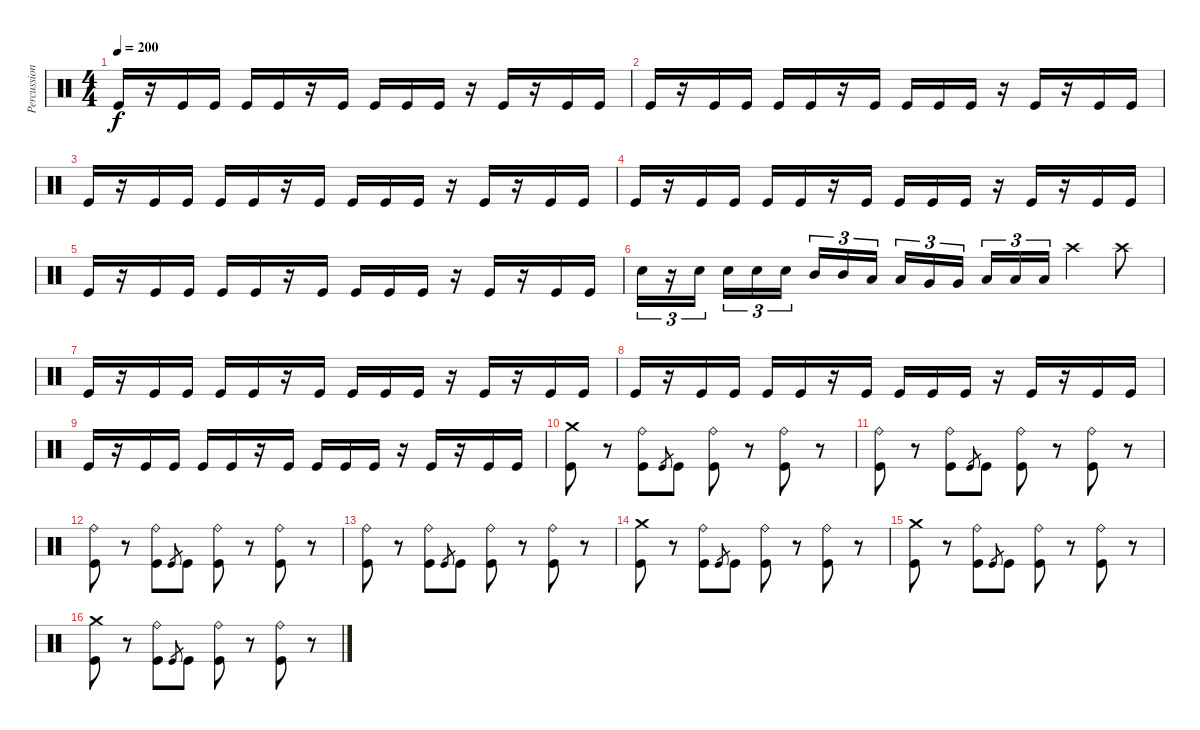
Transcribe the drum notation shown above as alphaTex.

\track ("Percussion" "Percussion") {instrument percussion}
\staff {score}
\articulation defaults
\ts (4 4)
\tempo 200
\clef neutral
\ks c "Kick (hit)".16{dy f}
r.16 "Kick (hit)".16 "Kick (hit)".16 "Kick (hit)".16 "Kick (hit)".16 r.16 "Kick (hit)".16 "Kick (hit)".16 "Kick (hit)".16 "Kick (hit)".16 r.16 "Kick (hit)".16 r.16 "Kick (hit)".16 "Kick (hit)".16 |
"Kick (hit)".16 r.16 "Kick (hit)".16 "Kick (hit)".16 "Kick (hit)".16 "Kick (hit)".16 r.16 "Kick (hit)".16 "Kick (hit)".16 "Kick (hit)".16 "Kick (hit)".16 r.16 "Kick (hit)".16 r.16 "Kick (hit)".16 "Kick (hit)".16 |
"Kick (hit)".16 r.16 "Kick (hit)".16 "Kick (hit)".16 "Kick (hit)".16 "Kick (hit)".16 r.16 "Kick (hit)".16 "Kick (hit)".16 "Kick (hit)".16 "Kick (hit)".16 r.16 "Kick (hit)".16 r.16 "Kick (hit)".16 "Kick (hit)".16 |
"Kick (hit)".16 r.16 "Kick (hit)".16 "Kick (hit)".16 "Kick (hit)".16 "Kick (hit)".16 r.16 "Kick (hit)".16 "Kick (hit)".16 "Kick (hit)".16 "Kick (hit)".16 r.16 "Kick (hit)".16 r.16 "Kick (hit)".16 "Kick (hit)".16 |
"Kick (hit)".16 r.16 "Kick (hit)".16 "Kick (hit)".16 "Kick (hit)".16 "Kick (hit)".16 r.16 "Kick (hit)".16 "Kick (hit)".16 "Kick (hit)".16 "Kick (hit)".16 r.16 "Kick (hit)".16 r.16 "Kick (hit)".16 "Kick (hit)".16 |
"Snare (hit) 2".16{tu (3 2)} r.16{tu (3 2)} "Snare (hit) 2".16{tu (3 2)} "Snare (hit) 2".16{tu (3 2)} "Snare (hit) 2".16{tu (3 2)} "Snare (hit) 2".16{tu (3 2)} "Mid Tom (hit)".16{tu (3 2)} "Mid Tom (hit)".16{tu (3 2)} "Low Tom (hit)".16{tu (3 2)} "Low Tom (hit)".16{tu (3 2)} "Very Low Tom (hit)".16{tu (3 2)} "Very Low Tom (hit)".16{tu (3 2)} "Low Floor Tom (hit)".16{tu (3 2)} "Low Floor Tom (hit)".16{tu (3 2)} "Low Floor Tom (hit)".16{tu (3 2)} "Crash high (hit)".4 "Crash high (hit)".8 |
"Kick (hit)".16 r.16 "Kick (hit)".16 "Kick (hit)".16 "Kick (hit)".16 "Kick (hit)".16 r.16 "Kick (hit)".16 "Kick (hit)".16 "Kick (hit)".16 "Kick (hit)".16 r.16 "Kick (hit)".16 r.16 "Kick (hit)".16 "Kick (hit)".16 |
"Kick (hit)".16 r.16 "Kick (hit)".16 "Kick (hit)".16 "Kick (hit)".16 "Kick (hit)".16 r.16 "Kick (hit)".16 "Kick (hit)".16 "Kick (hit)".16 "Kick (hit)".16 r.16 "Kick (hit)".16 r.16 "Kick (hit)".16 "Kick (hit)".16 |
"Kick (hit)".16 r.16 "Kick (hit)".16 "Kick (hit)".16 "Kick (hit)".16 "Kick (hit)".16 r.16 "Kick (hit)".16 "Kick (hit)".16 "Kick (hit)".16 "Kick (hit)".16 r.16 "Kick (hit)".16 r.16 "Kick (hit)".16 "Kick (hit)".16 |
("Crash medium (hit)" "Kick (hit)").8 r.8 ("Ride (bell)" "Kick (hit)").8 "Kick (hit)".8{gr} "Kick (hit)".8 ("Ride (bell)" "Kick (hit)").8 r.8 ("Ride (bell)" "Kick (hit)").8 r.8 |
("Ride (bell)" "Kick (hit)").8 r.8 ("Ride (bell)" "Kick (hit)").8 "Kick (hit)".8{gr} "Kick (hit)".8 ("Ride (bell)" "Kick (hit)").8 r.8 ("Ride (bell)" "Kick (hit)").8 r.8 |
("Ride (bell)" "Kick (hit)").8 r.8 ("Ride (bell)" "Kick (hit)").8 "Kick (hit)".8{gr} "Kick (hit)".8 ("Ride (bell)" "Kick (hit)").8 r.8 ("Ride (bell)" "Kick (hit)").8 r.8 |
("Ride (bell)" "Kick (hit)").8 r.8 ("Ride (bell)" "Kick (hit)").8 "Kick (hit)".8{gr} "Kick (hit)".8 ("Ride (bell)" "Kick (hit)").8 r.8 ("Ride (bell)" "Kick (hit)").8 r.8 |
("Crash medium (hit)" "Kick (hit)").8 r.8 ("Ride (bell)" "Kick (hit)").8 "Kick (hit)".8{gr} "Kick (hit)".8 ("Ride (bell)" "Kick (hit)").8 r.8 ("Ride (bell)" "Kick (hit)").8 r.8 |
("Crash medium (hit)" "Kick (hit)").8 r.8 ("Ride (bell)" "Kick (hit)").8 "Kick (hit)".8{gr} "Kick (hit)".8 ("Ride (bell)" "Kick (hit)").8 r.8 ("Ride (bell)" "Kick (hit)").8 r.8 |
("Crash medium (hit)" "Kick (hit)").8 r.8 ("Ride (bell)" "Kick (hit)").8 "Kick (hit)".8{gr} "Kick (hit)".8 ("Ride (bell)" "Kick (hit)").8 r.8 ("Ride (bell)" "Kick (hit)").8 r.8
